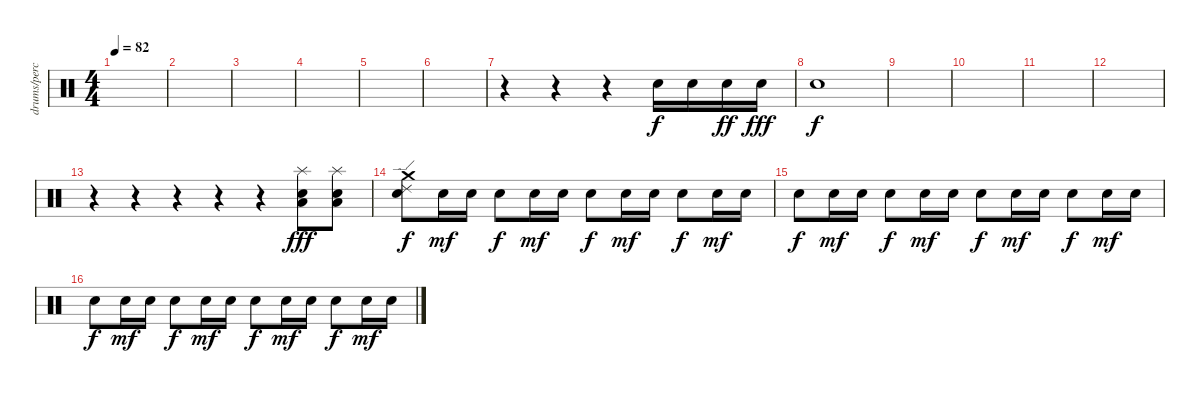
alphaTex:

\track ("drums/percussion" "drums/perc") {instrument percussion}
\staff {score}
\articulation defaults
\ts (4 4)
\tempo 82
\clef neutral
\ks c
|
|
|
|
|
|
r.4 r.4 r.4 "Electric Snare (hit)".16 "Electric Snare (hit)".16 "Electric Snare (hit)".16{dy ff} "Electric Snare (hit)".16{dy fff} |
"Electric Snare (hit)".1{dy f} |
|
|
|
|
r.4 r.4 r.4 r.4 r.4 ("Splash (hit)" "Low Floor Tom (hit)" "Electric Snare (hit)").8{dy fff} ("Splash (hit)" "Low Floor Tom (hit)" "Electric Snare (hit)").8 |
("Crash medium (hit)" "Ride (edge) 2" "Electric Snare (hit)").8{dy f} "Electric Snare (hit)".16{dy mf} "Electric Snare (hit)".16 "Electric Snare (hit)".8{dy f} "Electric Snare (hit)".16{dy mf} "Electric Snare (hit)".16 "Electric Snare (hit)".8{dy f} "Electric Snare (hit)".16{dy mf} "Electric Snare (hit)".16 "Electric Snare (hit)".8{dy f} "Electric Snare (hit)".16{dy mf} "Electric Snare (hit)".16 |
"Electric Snare (hit)".8{dy f} "Electric Snare (hit)".16{dy mf} "Electric Snare (hit)".16 "Electric Snare (hit)".8{dy f} "Electric Snare (hit)".16{dy mf} "Electric Snare (hit)".16 "Electric Snare (hit)".8{dy f} "Electric Snare (hit)".16{dy mf} "Electric Snare (hit)".16 "Electric Snare (hit)".8{dy f} "Electric Snare (hit)".16{dy mf} "Electric Snare (hit)".16 |
"Electric Snare (hit)".8{dy f} "Electric Snare (hit)".16{dy mf} "Electric Snare (hit)".16 "Electric Snare (hit)".8{dy f} "Electric Snare (hit)".16{dy mf} "Electric Snare (hit)".16 "Electric Snare (hit)".8{dy f} "Electric Snare (hit)".16{dy mf} "Electric Snare (hit)".16 "Electric Snare (hit)".8{dy f} "Electric Snare (hit)".16{dy mf} "Electric Snare (hit)".16
